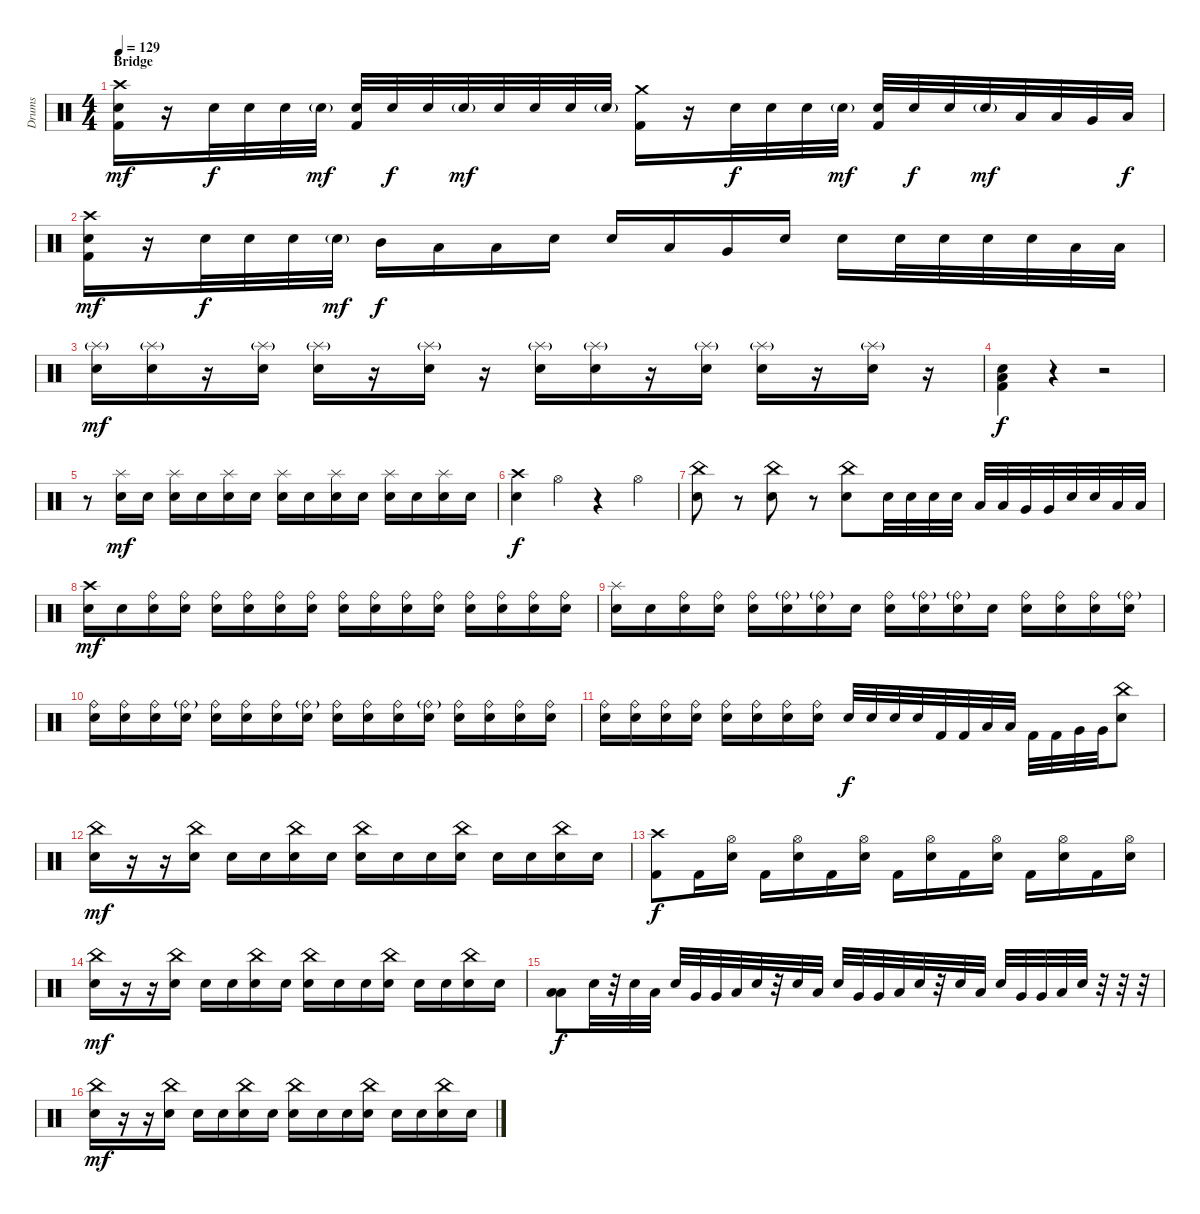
\track ("Drums" "Drums") {instrument percussion}
\staff {score}
\articulation defaults
\ts (4 4)
\section ("" "Bridge ")
\tempo 129
\clef neutral
\ks c
("Crash high (hit)" "Snare (hit) 2" "Kick (hit) 2").16{dy mf} r.16 "Snare (hit) 2".32{dy f} "Snare (hit) 2".32 "Snare (hit) 2".32 "Snare (hit) 2"{g}.32{dy mf} ("Snare (hit) 2" "Kick (hit) 2").32 "Snare (hit) 2".32{dy f} "Snare (hit) 2".32 "Snare (hit) 2"{g}.32{dy mf} "Snare (hit) 2".32 "Snare (hit) 2".32 "Snare (hit) 2".32 "Snare (hit) 2"{g}.32 ("Crash medium (hit)" "Kick (hit) 2").16 r.16 "Snare (hit) 2".32{dy f} "Snare (hit) 2".32 "Snare (hit) 2".32 "Snare (hit) 2"{g}.32{dy mf} ("Snare (hit) 2" "Kick (hit) 2").32 "Snare (hit) 2".32{dy f} "Snare (hit) 2".32 "Snare (hit) 2"{g}.32{dy mf} "Low Tom (hit)".32 "Low Tom (hit)".32 "Very Low Tom (hit)".32 "Low Floor Tom (hit)".32{dy f} |
("Crash high (hit)" "Snare (hit) 2" "Kick (hit) 2").16{dy mf} r.16 "Snare (hit) 2".32{dy f} "Snare (hit) 2".32 "Snare (hit) 2".32 "Snare (hit) 2"{g}.32{dy mf} "Mid Tom (hit)".16{dy f} "Low Tom (hit)".16 "Low Tom (hit)".16 "Snare (hit) 2".16 "Snare (hit) 2".16 "Low Tom (hit)".16 "Very Low Tom (hit)".16 "Snare (hit) 2".16 "Snare (hit) 2".16 "Snare (hit) 2".32 "Snare (hit) 2".32 "Snare (hit) 2".32 "Snare (hit) 2".32 "Low Floor Tom (hit)".32 "Low Floor Tom (hit)".32 |
("Splash (hit)"{g} "Snare (hit) 2").16{dy mf} ("Splash (hit)"{g} "Snare (hit) 2").16 r.16 ("Splash (hit)"{g} "Snare (hit) 2").16 ("Splash (hit)"{g} "Snare (hit) 2").16 r.16 ("Splash (hit)"{g} "Snare (hit) 2").16 r.16 ("Splash (hit)"{g} "Snare (hit) 2").16 ("Splash (hit)"{g} "Snare (hit) 2").16 r.16 ("Splash (hit)"{g} "Snare (hit) 2").16 ("Splash (hit)"{g} "Snare (hit) 2").16 r.16 ("Splash (hit)"{g} "Snare (hit) 2").16 r.16 |
("Low Floor Tom (hit)" "Snare (hit) 2" "Kick (hit) 2").4{dy f} r.4 r.2 |
r.8 ("Splash (hit)" "Snare (hit) 2").16{dy mf} "Snare (hit) 2".16 ("Splash (hit)" "Snare (hit) 2").16 "Snare (hit) 2".16 ("Splash (hit)" "Snare (hit) 2").16 "Snare (hit) 2".16 ("Splash (hit)" "Snare (hit) 2").16 "Snare (hit) 2".16 ("Splash (hit)" "Snare (hit) 2").16 "Snare (hit) 2".16 ("Splash (hit)" "Snare (hit) 2").16 "Snare (hit) 2".16 ("Splash (hit)" "Snare (hit) 2").16 "Snare (hit) 2".16 |
("Crash high (hit)" "Snare (hit) 2").4{dy f} "Hi-Hat (open)".4 r.4 "Hi-Hat (open)".4 |
("China (hit)" "Snare (hit) 2").8 r.8 ("China (hit)" "Snare (hit) 2").8 r.8 ("China (hit)" "Snare (hit) 2").8 "Snare (hit) 2".32 "Snare (hit) 2".32 "Snare (hit) 2".32 "Snare (hit) 2".32 "Low Tom (hit)".32 "Low Tom (hit)".32 "Very Low Tom (hit)".32 "Very Low Tom (hit)".32 "Snare (hit) 2".32 "Snare (hit) 2".32 "Low Floor Tom (hit)".32 "Low Floor Tom (hit)".32 |
("Crash high (hit)" "Snare (hit) 2").16{dy mf} "Snare (hit) 2".16 ("Ride (bell)" "Snare (hit) 2").16 ("Ride (bell)" "Snare (hit) 2").16 ("Ride (bell)" "Snare (hit) 2").16 ("Ride (bell)" "Snare (hit) 2").16 ("Ride (bell)" "Snare (hit) 2").16 ("Ride (bell)" "Snare (hit) 2").16 ("Ride (bell)" "Snare (hit) 2").16 ("Ride (bell)" "Snare (hit) 2").16 ("Ride (bell)" "Snare (hit) 2").16 ("Ride (bell)" "Snare (hit) 2").16 ("Ride (bell)" "Snare (hit) 2").16 ("Ride (bell)" "Snare (hit) 2").16 ("Ride (bell)" "Snare (hit) 2").16 ("Ride (bell)" "Snare (hit) 2").16 |
("Splash (hit)" "Snare (hit) 2").16 "Snare (hit) 2".16 ("Ride (bell)" "Snare (hit) 2").16 ("Ride (bell)" "Snare (hit) 2").16 ("Ride (bell)" "Snare (hit) 2").16 ("Ride (bell)"{g} "Snare (hit) 2").16 ("Ride (bell)"{g} "Snare (hit) 2").16 "Snare (hit) 2".16 ("Ride (bell)" "Snare (hit) 2").16 ("Ride (bell)"{g} "Snare (hit) 2").16 ("Ride (bell)"{g} "Snare (hit) 2").16 "Snare (hit) 2".16 ("Ride (bell)" "Snare (hit) 2").16 ("Ride (bell)" "Snare (hit) 2").16 ("Ride (bell)" "Snare (hit) 2").16 ("Ride (bell)"{g} "Snare (hit) 2").16 |
("Ride (bell)" "Snare (hit) 2").16 ("Ride (bell)" "Snare (hit) 2").16 ("Ride (bell)" "Snare (hit) 2").16 ("Ride (bell)"{g} "Snare (hit) 2").16 ("Ride (bell)" "Snare (hit) 2").16 ("Ride (bell)" "Snare (hit) 2").16 ("Ride (bell)" "Snare (hit) 2").16 ("Ride (bell)"{g} "Snare (hit) 2").16 ("Ride (bell)" "Snare (hit) 2").16 ("Ride (bell)" "Snare (hit) 2").16 ("Ride (bell)" "Snare (hit) 2").16 ("Ride (bell)"{g} "Snare (hit) 2").16 ("Ride (bell)" "Snare (hit) 2").16 ("Ride (bell)" "Snare (hit) 2").16 ("Ride (bell)" "Snare (hit) 2").16 ("Ride (bell)" "Snare (hit) 2").16 |
("Ride (bell)" "Snare (hit) 2").16 ("Ride (bell)" "Snare (hit) 2").16 ("Ride (bell)" "Snare (hit) 2").16 ("Ride (bell)" "Snare (hit) 2").16 ("Ride (bell)" "Snare (hit) 2").16 ("Ride (bell)" "Snare (hit) 2").16 ("Ride (bell)" "Snare (hit) 2").16 ("Ride (bell)" "Snare (hit) 2").16 "Snare (hit) 2".32{dy f} "Snare (hit) 2".32 "Snare (hit) 2".32 "Snare (hit) 2".32 "Kick (hit) 2".32 "Kick (hit) 2".32 "Low Tom (hit)".32 "Low Tom (hit)".32 "Kick (hit) 2".32 "Kick (hit) 2".32 "Very Low Tom (hit)".32 "Very Low Tom (hit)".32 ("China (hit)" "Snare (hit) 2").8 |
("China (hit)" "Snare (hit) 2").16{dy mf} r.16 r.16 ("China (hit)" "Snare (hit) 2").16 "Snare (hit) 2".16 "Snare (hit) 2".16 ("China (hit)" "Snare (hit) 2").16 "Snare (hit) 2".16 ("China (hit)" "Snare (hit) 2").16 "Snare (hit) 2".16 "Snare (hit) 2".16 ("China (hit)" "Snare (hit) 2").16 "Snare (hit) 2".16 "Snare (hit) 2".16 ("China (hit)" "Snare (hit) 2").16 "Snare (hit) 2".16 |
("Crash high (hit)" "Kick (hit) 2").8{dy f} "Kick (hit) 2".16 ("Hi-Hat (open)" "Snare (hit) 2").16 "Kick (hit) 2".16 ("Hi-Hat (open)" "Snare (hit) 2").16 "Kick (hit) 2".16 ("Hi-Hat (open)" "Snare (hit) 2").16 "Kick (hit) 2".16 ("Hi-Hat (open)" "Snare (hit) 2").16 "Kick (hit) 2".16 ("Hi-Hat (open)" "Snare (hit) 2").16 "Kick (hit) 2".16 ("Hi-Hat (open)" "Snare (hit) 2").16 "Kick (hit) 2".16 ("Hi-Hat (open)" "Snare (hit) 2").16 |
("China (hit)" "Snare (hit) 2").16{dy mf} r.16 r.16 ("China (hit)" "Snare (hit) 2").16 "Snare (hit) 2".16 "Snare (hit) 2".16 ("China (hit)" "Snare (hit) 2").16 "Snare (hit) 2".16 ("China (hit)" "Snare (hit) 2").16 "Snare (hit) 2".16 "Snare (hit) 2".16 ("China (hit)" "Snare (hit) 2").16 "Snare (hit) 2".16 "Snare (hit) 2".16 ("China (hit)" "Snare (hit) 2").16 "Snare (hit) 2".16 |
("Low Tom (hit)" "Low Floor Tom (hit)").8{dy f} "Snare (hit) 2".32 r.32 "Snare (hit) 2".32 "Low Tom (hit)".32 "Snare (hit) 2".32 "Very Low Tom (hit)".32 "Very Low Tom (hit)".32 "Low Floor Tom (hit)".32 "Snare (hit) 2".32 r.32 "Snare (hit) 2".32 "Low Tom (hit)".32 "Snare (hit) 2".32 "Very Low Tom (hit)".32 "Very Low Tom (hit)".32 "Low Floor Tom (hit)".32 "Snare (hit) 2".32 r.32 "Snare (hit) 2".32 "Low Tom (hit)".32 "Snare (hit) 2".32 "Very Low Tom (hit)".32 "Very Low Tom (hit)".32 "Low Floor Tom (hit)".32 "Snare (hit) 2".32 r.32 r.32 r.32 |
("China (hit)" "Snare (hit) 2").16{dy mf} r.16 r.16 ("China (hit)" "Snare (hit) 2").16 "Snare (hit) 2".16 "Snare (hit) 2".16 ("China (hit)" "Snare (hit) 2").16 "Snare (hit) 2".16 ("China (hit)" "Snare (hit) 2").16 "Snare (hit) 2".16 "Snare (hit) 2".16 ("China (hit)" "Snare (hit) 2").16 "Snare (hit) 2".16 "Snare (hit) 2".16 ("China (hit)" "Snare (hit) 2").16 "Snare (hit) 2".16
